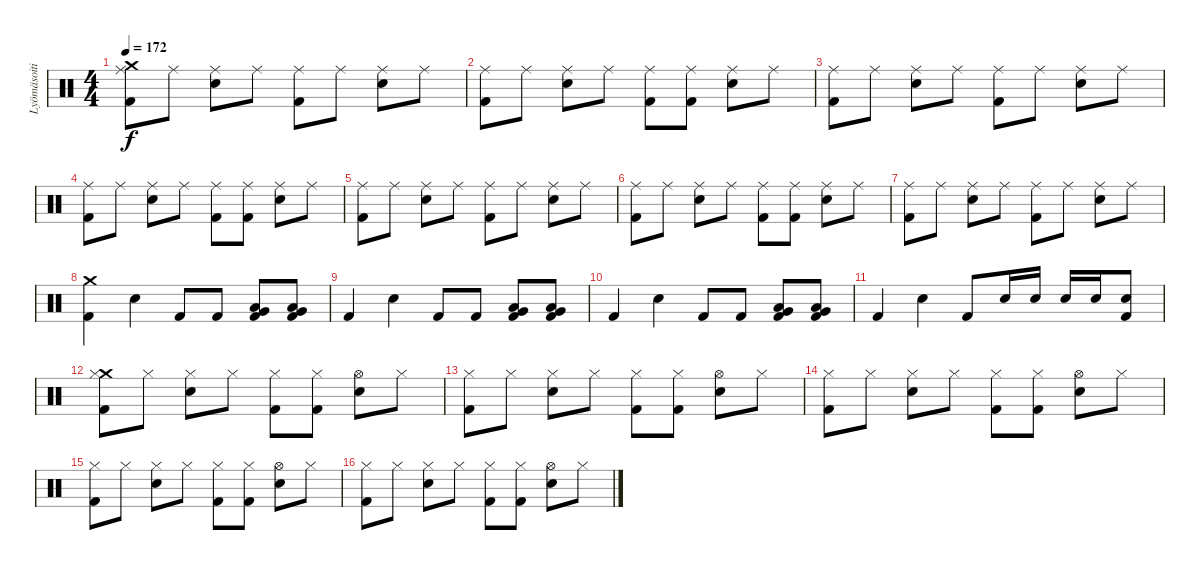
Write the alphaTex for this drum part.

\track ("Lyömäsoitin" "Lyömäsoiti") {instrument percussion}
\staff {score}
\articulation defaults
\ts (4 4)
\tempo 172
\clef neutral
\ks c
("Crash medium (hit)" "Ride (middle)" "Kick (hit) 2").8{dy f} "Ride (middle)".8 ("Ride (middle)" "Electric Snare (hit)").8 "Ride (middle)".8 ("Ride (middle)" "Kick (hit) 2").8 "Ride (middle)".8 ("Ride (middle)" "Electric Snare (hit)").8 "Ride (middle)".8 |
("Ride (middle)" "Kick (hit) 2").8 "Ride (middle)".8 ("Ride (middle)" "Electric Snare (hit)").8 "Ride (middle)".8 ("Ride (middle)" "Kick (hit) 2").8 ("Ride (middle)" "Kick (hit) 2").8 ("Ride (middle)" "Electric Snare (hit)").8 "Ride (middle)".8 |
("Ride (middle)" "Kick (hit) 2").8 "Ride (middle)".8 ("Ride (middle)" "Electric Snare (hit)").8 "Ride (middle)".8 ("Ride (middle)" "Kick (hit) 2").8 "Ride (middle)".8 ("Ride (middle)" "Electric Snare (hit)").8 "Ride (middle)".8 |
("Ride (middle)" "Kick (hit) 2").8 "Ride (middle)".8 ("Ride (middle)" "Electric Snare (hit)").8 "Ride (middle)".8 ("Ride (middle)" "Kick (hit) 2").8 ("Ride (middle)" "Kick (hit) 2").8 ("Ride (middle)" "Electric Snare (hit)").8 "Ride (middle)".8 |
("Ride (middle)" "Kick (hit) 2").8 "Ride (middle)".8 ("Ride (middle)" "Electric Snare (hit)").8 "Ride (middle)".8 ("Ride (middle)" "Kick (hit) 2").8 "Ride (middle)".8 ("Ride (middle)" "Electric Snare (hit)").8 "Ride (middle)".8 |
("Ride (middle)" "Kick (hit) 2").8 "Ride (middle)".8 ("Ride (middle)" "Electric Snare (hit)").8 "Ride (middle)".8 ("Ride (middle)" "Kick (hit) 2").8 ("Ride (middle)" "Kick (hit) 2").8 ("Ride (middle)" "Electric Snare (hit)").8 "Ride (middle)".8 |
("Ride (middle)" "Kick (hit) 2").8 "Ride (middle)".8 ("Ride (middle)" "Electric Snare (hit)").8 "Ride (middle)".8 ("Ride (middle)" "Kick (hit) 2").8 "Ride (middle)".8 ("Ride (middle)" "Electric Snare (hit)").8 "Ride (middle)".8 |
("Crash medium (hit)" "Kick (hit) 2").4 "Electric Snare (hit)".4 "Kick (hit) 2".8 "Kick (hit) 2".8 ("Low Tom (hit)" "Very Low Tom (hit)" "Kick (hit) 2").8 ("Very Low Tom (hit)" "Low Floor Tom (hit)" "Kick (hit) 2").8 |
"Kick (hit) 2".4 "Electric Snare (hit)".4 "Kick (hit) 2".8 "Kick (hit) 2".8 ("Low Tom (hit)" "Very Low Tom (hit)" "Kick (hit) 2").8 ("Very Low Tom (hit)" "Low Floor Tom (hit)" "Kick (hit) 2").8 |
"Kick (hit) 2".4 "Electric Snare (hit)".4 "Kick (hit) 2".8 "Kick (hit) 2".8 ("Low Tom (hit)" "Very Low Tom (hit)" "Kick (hit) 2").8 ("Very Low Tom (hit)" "Low Floor Tom (hit)" "Kick (hit) 2").8 |
"Kick (hit) 2".4 "Electric Snare (hit)".4 "Kick (hit) 2".8 "Electric Snare (hit)".16 "Electric Snare (hit)".16 "Electric Snare (hit)".16 "Electric Snare (hit)".16 ("Electric Snare (hit)" "Kick (hit) 2").8 |
("Crash medium (hit)" "Hi-Hat (closed)" "Kick (hit) 2").8 "Hi-Hat (closed)".8 ("Hi-Hat (closed)" "Electric Snare (hit)").8 "Hi-Hat (closed)".8 ("Hi-Hat (closed)" "Kick (hit) 2").8 ("Hi-Hat (closed)" "Kick (hit) 2").8 ("Hi-Hat (open)" "Electric Snare (hit)").8 "Hi-Hat (closed)".8 |
("Hi-Hat (closed)" "Kick (hit) 2").8 "Hi-Hat (closed)".8 ("Hi-Hat (closed)" "Electric Snare (hit)").8 "Hi-Hat (closed)".8 ("Hi-Hat (closed)" "Kick (hit) 2").8 ("Hi-Hat (closed)" "Kick (hit) 2").8 ("Hi-Hat (open)" "Electric Snare (hit)").8 "Hi-Hat (closed)".8 |
("Hi-Hat (closed)" "Kick (hit) 2").8 "Hi-Hat (closed)".8 ("Hi-Hat (closed)" "Electric Snare (hit)").8 "Hi-Hat (closed)".8 ("Hi-Hat (closed)" "Kick (hit) 2").8 ("Hi-Hat (closed)" "Kick (hit) 2").8 ("Hi-Hat (open)" "Electric Snare (hit)").8 "Hi-Hat (closed)".8 |
("Hi-Hat (closed)" "Kick (hit) 2").8 "Hi-Hat (closed)".8 ("Hi-Hat (closed)" "Electric Snare (hit)").8 "Hi-Hat (closed)".8 ("Hi-Hat (closed)" "Kick (hit) 2").8 ("Hi-Hat (closed)" "Kick (hit) 2").8 ("Hi-Hat (open)" "Electric Snare (hit)").8 "Hi-Hat (closed)".8 |
("Hi-Hat (closed)" "Kick (hit) 2").8 "Hi-Hat (closed)".8 ("Hi-Hat (closed)" "Electric Snare (hit)").8 "Hi-Hat (closed)".8 ("Hi-Hat (closed)" "Kick (hit) 2").8 ("Hi-Hat (closed)" "Kick (hit) 2").8 ("Hi-Hat (open)" "Electric Snare (hit)").8 "Hi-Hat (closed)".8
